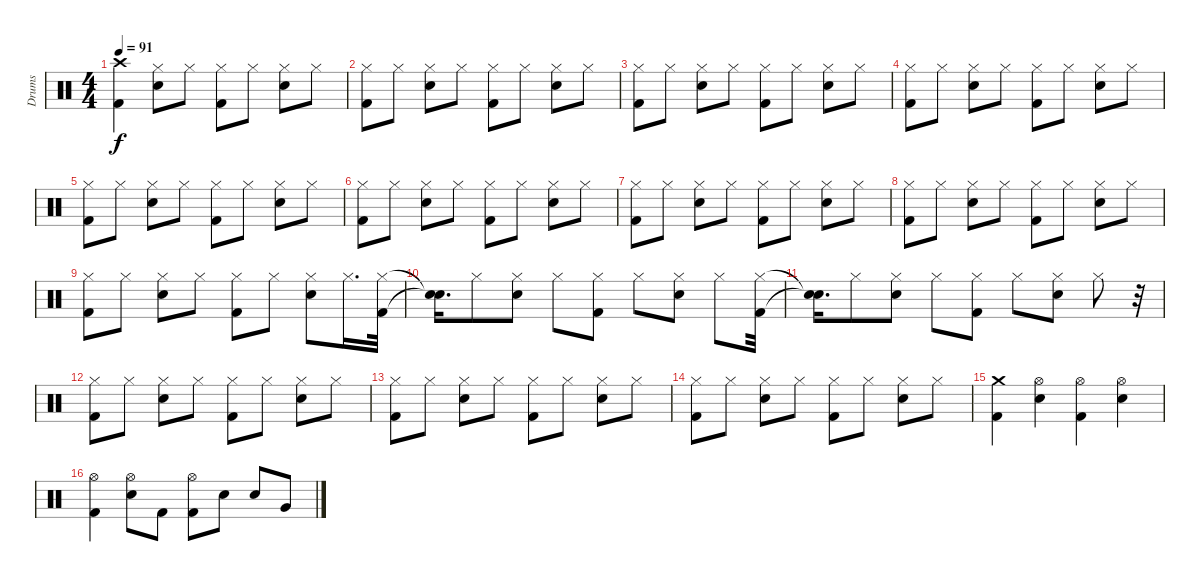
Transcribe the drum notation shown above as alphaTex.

\track ("Drums" "Drums") {instrument percussion}
\staff {score}
\articulation defaults
\ts (4 4)
\tempo 91
\clef neutral
\ks c
("Kick (hit) 2" "Crash high (hit)").4{dy f} ("Hi-Hat (closed)" "Electric Snare (hit)").8 "Hi-Hat (closed)".8 ("Hi-Hat (closed)" "Kick (hit) 2").8 "Hi-Hat (closed)".8 ("Hi-Hat (closed)" "Electric Snare (hit)").8 "Hi-Hat (closed)".8 |
("Hi-Hat (closed)" "Kick (hit) 2").8 "Hi-Hat (closed)".8 ("Hi-Hat (closed)" "Electric Snare (hit)").8 "Hi-Hat (closed)".8 ("Hi-Hat (closed)" "Kick (hit) 2").8 "Hi-Hat (closed)".8 ("Hi-Hat (closed)" "Electric Snare (hit)").8 "Hi-Hat (closed)".8 |
("Hi-Hat (closed)" "Kick (hit) 2").8 "Hi-Hat (closed)".8 ("Hi-Hat (closed)" "Electric Snare (hit)").8 "Hi-Hat (closed)".8 ("Hi-Hat (closed)" "Kick (hit) 2").8 "Hi-Hat (closed)".8 ("Hi-Hat (closed)" "Electric Snare (hit)").8 "Hi-Hat (closed)".8 |
("Hi-Hat (closed)" "Kick (hit) 2").8 "Hi-Hat (closed)".8 ("Hi-Hat (closed)" "Electric Snare (hit)").8 "Hi-Hat (closed)".8 ("Hi-Hat (closed)" "Kick (hit) 2").8 "Hi-Hat (closed)".8 ("Hi-Hat (closed)" "Electric Snare (hit)").8 "Hi-Hat (closed)".8 |
("Hi-Hat (closed)" "Kick (hit) 2").8 "Hi-Hat (closed)".8 ("Hi-Hat (closed)" "Electric Snare (hit)").8 "Hi-Hat (closed)".8 ("Hi-Hat (closed)" "Kick (hit) 2").8 "Hi-Hat (closed)".8 ("Hi-Hat (closed)" "Electric Snare (hit)").8 "Hi-Hat (closed)".8 |
("Hi-Hat (closed)" "Kick (hit) 2").8 "Hi-Hat (closed)".8 ("Hi-Hat (closed)" "Electric Snare (hit)").8 "Hi-Hat (closed)".8 ("Hi-Hat (closed)" "Kick (hit) 2").8 "Hi-Hat (closed)".8 ("Hi-Hat (closed)" "Electric Snare (hit)").8 "Hi-Hat (closed)".8 |
("Hi-Hat (closed)" "Kick (hit) 2").8 "Hi-Hat (closed)".8 ("Hi-Hat (closed)" "Electric Snare (hit)").8 "Hi-Hat (closed)".8 ("Hi-Hat (closed)" "Kick (hit) 2").8 "Hi-Hat (closed)".8 ("Hi-Hat (closed)" "Electric Snare (hit)").8 "Hi-Hat (closed)".8 |
("Hi-Hat (closed)" "Kick (hit) 2").8 "Hi-Hat (closed)".8 ("Hi-Hat (closed)" "Electric Snare (hit)").8 "Hi-Hat (closed)".8 ("Hi-Hat (closed)" "Kick (hit) 2").8 "Hi-Hat (closed)".8 ("Hi-Hat (closed)" "Electric Snare (hit)").8 "Hi-Hat (closed)".8 |
("Hi-Hat (closed)" "Kick (hit) 2").8 "Hi-Hat (closed)".8 ("Hi-Hat (closed)" "Electric Snare (hit)").8 "Hi-Hat (closed)".8 ("Hi-Hat (closed)" "Kick (hit) 2").8 "Hi-Hat (closed)".8 ("Hi-Hat (closed)" "Electric Snare (hit)").8 "Hi-Hat (closed)".16{d} ("Hi-Hat (closed)" "Kick (hit) 2").32 |
("Snare (hit)"{t} "Snare (hit)"{t}).16{d} "Hi-Hat (closed)".8 ("Hi-Hat (closed)" "Electric Snare (hit)").8 "Hi-Hat (closed)".8 ("Hi-Hat (closed)" "Kick (hit) 2").8 "Hi-Hat (closed)".8 ("Hi-Hat (closed)" "Electric Snare (hit)").8 "Hi-Hat (closed)".8 ("Hi-Hat (closed)" "Kick (hit) 2").32 |
("Snare (hit)"{t} "Snare (hit)"{t}).16{d} "Hi-Hat (closed)".8 ("Hi-Hat (closed)" "Electric Snare (hit)").8 "Hi-Hat (closed)".8 ("Hi-Hat (closed)" "Kick (hit) 2").8 "Hi-Hat (closed)".8 ("Hi-Hat (closed)" "Electric Snare (hit)").8 "Hi-Hat (closed)".8 r.32 |
("Hi-Hat (closed)" "Kick (hit) 2").8 "Hi-Hat (closed)".8 ("Hi-Hat (closed)" "Electric Snare (hit)").8 "Hi-Hat (closed)".8 ("Hi-Hat (closed)" "Kick (hit) 2").8 "Hi-Hat (closed)".8 ("Hi-Hat (closed)" "Electric Snare (hit)").8 "Hi-Hat (closed)".8 |
("Hi-Hat (closed)" "Kick (hit) 2").8 "Hi-Hat (closed)".8 ("Hi-Hat (closed)" "Electric Snare (hit)").8 "Hi-Hat (closed)".8 ("Hi-Hat (closed)" "Kick (hit) 2").8 "Hi-Hat (closed)".8 ("Hi-Hat (closed)" "Electric Snare (hit)").8 "Hi-Hat (closed)".8 |
("Hi-Hat (closed)" "Kick (hit) 2").8 "Hi-Hat (closed)".8 ("Hi-Hat (closed)" "Electric Snare (hit)").8 "Hi-Hat (closed)".8 ("Hi-Hat (closed)" "Kick (hit) 2").8 "Hi-Hat (closed)".8 ("Hi-Hat (closed)" "Electric Snare (hit)").8 "Hi-Hat (closed)".8 |
("Kick (hit) 2" "Crash medium (hit)").4 ("Hi-Hat (open)" "Electric Snare (hit)").4 ("Hi-Hat (open)" "Kick (hit) 2").4 ("Hi-Hat (open)" "Electric Snare (hit)").4 |
("Hi-Hat (open)" "Kick (hit) 2").4 ("Hi-Hat (open)" "Electric Snare (hit)").8 "Kick (hit) 2".8 ("Hi-Hat (open)" "Kick (hit) 2").8 "Electric Snare (hit)".8 "Electric Snare (hit)".8 "Very Low Tom (hit)".8
